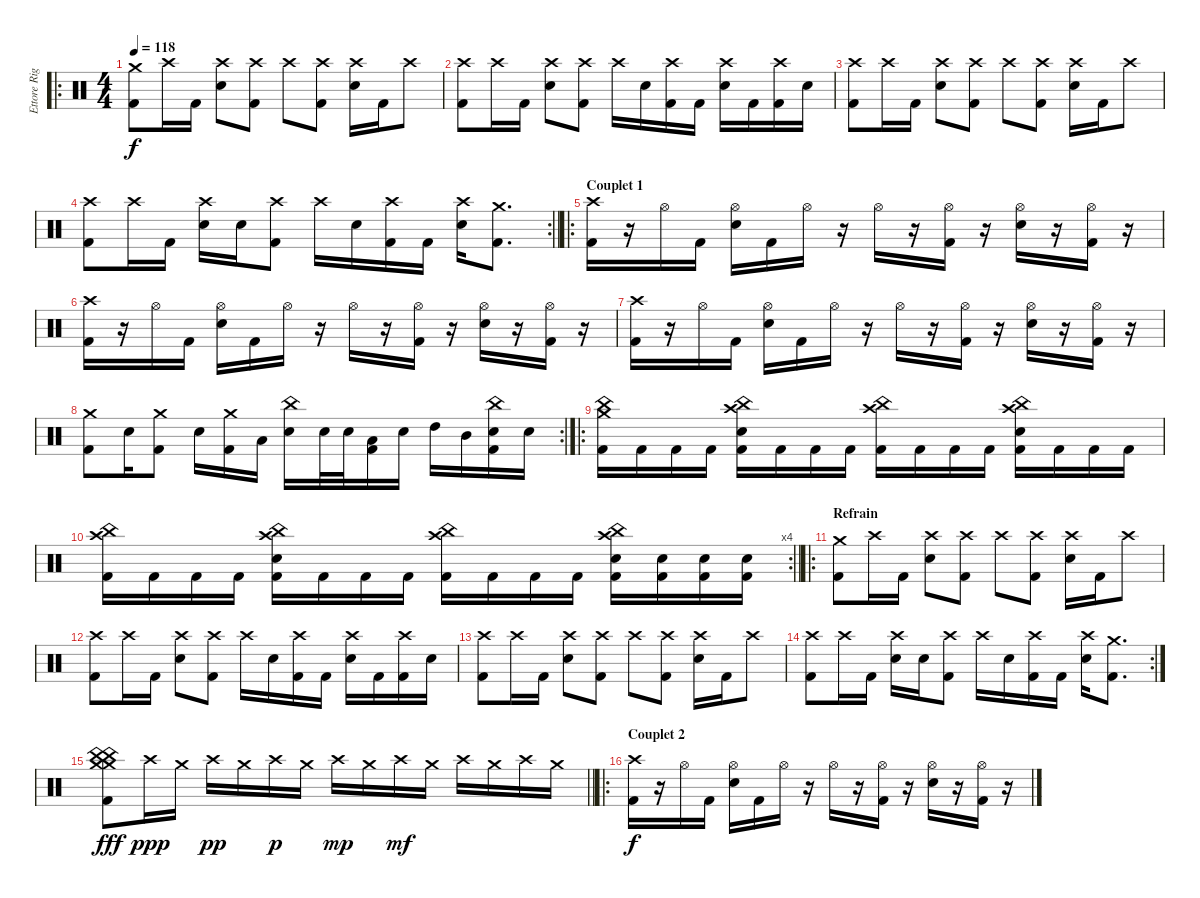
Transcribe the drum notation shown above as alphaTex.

\track ("Ettore Rigotti" "Ettore Rig") {instrument percussion}
\staff {score}
\articulation defaults
\ro
\ts (4 4)
\tempo 118
\clef neutral
\ks c
("Crash medium (hit)" "Kick (hit) 2").8{dy f} "Crash high (hit)".16 "Kick (hit) 2".16 ("Crash high (hit)" "Electric Snare (hit)").8 ("Crash high (hit)" "Kick (hit) 2").8 "Crash high (hit)".8 ("Crash high (hit)" "Kick (hit) 2").8 ("Crash high (hit)" "Electric Snare (hit)").16 "Kick (hit) 2".16 "Crash high (hit)".8 |
("Crash high (hit)" "Kick (hit) 2").8 "Crash high (hit)".16 "Kick (hit) 2".16 ("Crash high (hit)" "Electric Snare (hit)").8 ("Crash high (hit)" "Kick (hit) 2").8 "Crash high (hit)".16 "Electric Snare (hit)".16 ("Crash high (hit)" "Kick (hit) 2").16 "Kick (hit) 2".16 ("Crash high (hit)" "Electric Snare (hit)").16 "Kick (hit) 2".16 ("Crash high (hit)" "Kick (hit) 2").16 "Electric Snare (hit)".16 |
("Crash high (hit)" "Kick (hit) 2").8 "Crash high (hit)".16 "Kick (hit) 2".16 ("Crash high (hit)" "Electric Snare (hit)").8 ("Crash high (hit)" "Kick (hit) 2").8 "Crash high (hit)".8 ("Crash high (hit)" "Kick (hit) 2").8 ("Crash high (hit)" "Electric Snare (hit)").16 "Kick (hit) 2".16 "Crash high (hit)".8 |
\rc 2
\barLineRight lightlight
("Crash high (hit)" "Kick (hit) 2").8 "Crash high (hit)".16 "Kick (hit) 2".16 ("Crash high (hit)" "Electric Snare (hit)").16 "Electric Snare (hit)".16 ("Crash high (hit)" "Kick (hit) 2").8 "Crash high (hit)".16 "Electric Snare (hit)".16 ("Crash high (hit)" "Kick (hit) 2").16 "Kick (hit) 2".16 ("Crash high (hit)" "Electric Snare (hit)").16 ("Crash medium (hit)" "Kick (hit) 2").8{d} |
\ro
\section ("" "Couplet 1")
("Crash high (hit)" "Kick (hit) 2").16 r.16 "Hi-Hat (open)".16 "Kick (hit) 2".16 ("Hi-Hat (open)" "Electric Snare (hit)").16 "Kick (hit) 2".16 "Hi-Hat (open)".16 r.16 "Hi-Hat (open)".16 r.16 ("Hi-Hat (open)" "Kick (hit) 2").16 r.16 ("Hi-Hat (open)" "Electric Snare (hit)").16 r.16 ("Hi-Hat (open)" "Kick (hit) 2").16 r.16 |
("Crash high (hit)" "Kick (hit) 2").16 r.16 "Hi-Hat (open)".16 "Kick (hit) 2".16 ("Hi-Hat (open)" "Electric Snare (hit)").16 "Kick (hit) 2".16 "Hi-Hat (open)".16 r.16 "Hi-Hat (open)".16 r.16 ("Hi-Hat (open)" "Kick (hit) 2").16 r.16 ("Hi-Hat (open)" "Electric Snare (hit)").16 r.16 ("Hi-Hat (open)" "Kick (hit) 2").16 r.16 |
("Crash high (hit)" "Kick (hit) 2").16 r.16 "Hi-Hat (open)".16 "Kick (hit) 2".16 ("Hi-Hat (open)" "Electric Snare (hit)").16 "Kick (hit) 2".16 "Hi-Hat (open)".16 r.16 "Hi-Hat (open)".16 r.16 ("Hi-Hat (open)" "Kick (hit) 2").16 r.16 ("Hi-Hat (open)" "Electric Snare (hit)").16 r.16 ("Hi-Hat (open)" "Kick (hit) 2").16 r.16 |
\rc 2
("Crash medium (hit)" "Kick (hit) 2").8 "Electric Snare (hit)".16 ("Crash medium (hit)" "Kick (hit) 2").8 "Electric Snare (hit)".16 ("Crash medium (hit)" "Kick (hit) 2").16 "Low Tom (hit)".16 ("China (hit)" "Electric Snare (hit)").16 "Electric Snare (hit)".32 "Electric Snare (hit)".32 ("Low Tom (hit)" "Kick (hit) 2").16 "Electric Snare (hit)".16 "High Tom (hit)".16 "Mid Tom (hit)".16 ("China (hit)" "Electric Snare (hit)" "Kick (hit) 2").16 "Electric Snare (hit)".16 |
\ro
("Crash medium (hit)" "China (hit)" "Kick (hit) 2").16 "Kick (hit) 2".16 "Kick (hit) 2".16 "Kick (hit) 2".16 ("China (hit)" "Crash high (hit)" "Electric Snare (hit)" "Kick (hit) 2").16 "Kick (hit) 2".16 "Kick (hit) 2".16 "Kick (hit) 2".16 ("China (hit)" "Crash high (hit)" "Kick (hit) 2").16 "Kick (hit) 2".16 "Kick (hit) 2".16 "Kick (hit) 2".16 ("China (hit)" "Crash high (hit)" "Electric Snare (hit)" "Kick (hit) 2").16 "Kick (hit) 2".16 "Kick (hit) 2".16 "Kick (hit) 2".16 |
\rc 4
\barLineRight lightlight
("China (hit)" "Crash high (hit)" "Kick (hit) 2").16 "Kick (hit) 2".16 "Kick (hit) 2".16 "Kick (hit) 2".16 ("China (hit)" "Crash high (hit)" "Electric Snare (hit)" "Kick (hit) 2").16 "Kick (hit) 2".16 "Kick (hit) 2".16 "Kick (hit) 2".16 ("China (hit)" "Crash high (hit)" "Kick (hit) 2").16 "Kick (hit) 2".16 "Kick (hit) 2".16 "Kick (hit) 2".16 ("China (hit)" "Crash high (hit)" "Electric Snare (hit)" "Kick (hit) 2").16 ("Electric Snare (hit)" "Kick (hit) 2").16 ("Electric Snare (hit)" "Kick (hit) 2").16 ("Electric Snare (hit)" "Kick (hit) 2").16 |
\ro
\section ("" "Refrain")
("Crash medium (hit)" "Kick (hit) 2").8 "Crash high (hit)".16 "Kick (hit) 2".16 ("Crash high (hit)" "Electric Snare (hit)").8 ("Crash high (hit)" "Kick (hit) 2").8 "Crash high (hit)".8 ("Crash high (hit)" "Kick (hit) 2").8 ("Crash high (hit)" "Electric Snare (hit)").16 "Kick (hit) 2".16 "Crash high (hit)".8 |
("Crash high (hit)" "Kick (hit) 2").8 "Crash high (hit)".16 "Kick (hit) 2".16 ("Crash high (hit)" "Electric Snare (hit)").8 ("Crash high (hit)" "Kick (hit) 2").8 "Crash high (hit)".16 "Electric Snare (hit)".16 ("Crash high (hit)" "Kick (hit) 2").16 "Kick (hit) 2".16 ("Crash high (hit)" "Electric Snare (hit)").16 "Kick (hit) 2".16 ("Crash high (hit)" "Kick (hit) 2").16 "Electric Snare (hit)".16 |
("Crash high (hit)" "Kick (hit) 2").8 "Crash high (hit)".16 "Kick (hit) 2".16 ("Crash high (hit)" "Electric Snare (hit)").8 ("Crash high (hit)" "Kick (hit) 2").8 "Crash high (hit)".8 ("Crash high (hit)" "Kick (hit) 2").8 ("Crash high (hit)" "Electric Snare (hit)").16 "Kick (hit) 2".16 "Crash high (hit)".8 |
\rc 2
("Crash high (hit)" "Kick (hit) 2").8 "Crash high (hit)".16 "Kick (hit) 2".16 ("Crash high (hit)" "Electric Snare (hit)").16 "Electric Snare (hit)".16 ("Crash high (hit)" "Kick (hit) 2").8 "Crash high (hit)".16 "Electric Snare (hit)".16 ("Crash high (hit)" "Kick (hit) 2").16 "Kick (hit) 2".16 ("Crash high (hit)" "Electric Snare (hit)").16 ("Crash medium (hit)" "Kick (hit) 2").8{d} |
\barLineRight lightlight
("China (hit)" "China (hit)" "Crash medium (hit)" "Crash medium (hit)" "Kick (hit) 2").8{dy fff} "Crash high (hit)".16{dy ppp} "Crash medium (hit)".16 "Crash high (hit)".16{dy pp} "Crash medium (hit)".16 "Crash high (hit)".16{dy p} "Crash medium (hit)".16 "Crash high (hit)".16{dy mp} "Crash medium (hit)".16 "Crash high (hit)".16{dy mf} "Crash medium (hit)".16 "Crash high (hit)".16 "Crash medium (hit)".16 "Crash high (hit)".16 "Crash medium (hit)".16 |
\ro
\section ("" "Couplet 2")
("Crash high (hit)" "Kick (hit) 2").16{dy f} r.16 "Hi-Hat (open)".16 "Kick (hit) 2".16 ("Hi-Hat (open)" "Electric Snare (hit)").16 "Kick (hit) 2".16 "Hi-Hat (open)".16 r.16 "Hi-Hat (open)".16 r.16 ("Hi-Hat (open)" "Kick (hit) 2").16 r.16 ("Hi-Hat (open)" "Electric Snare (hit)").16 r.16 ("Hi-Hat (open)" "Kick (hit) 2").16 r.16
